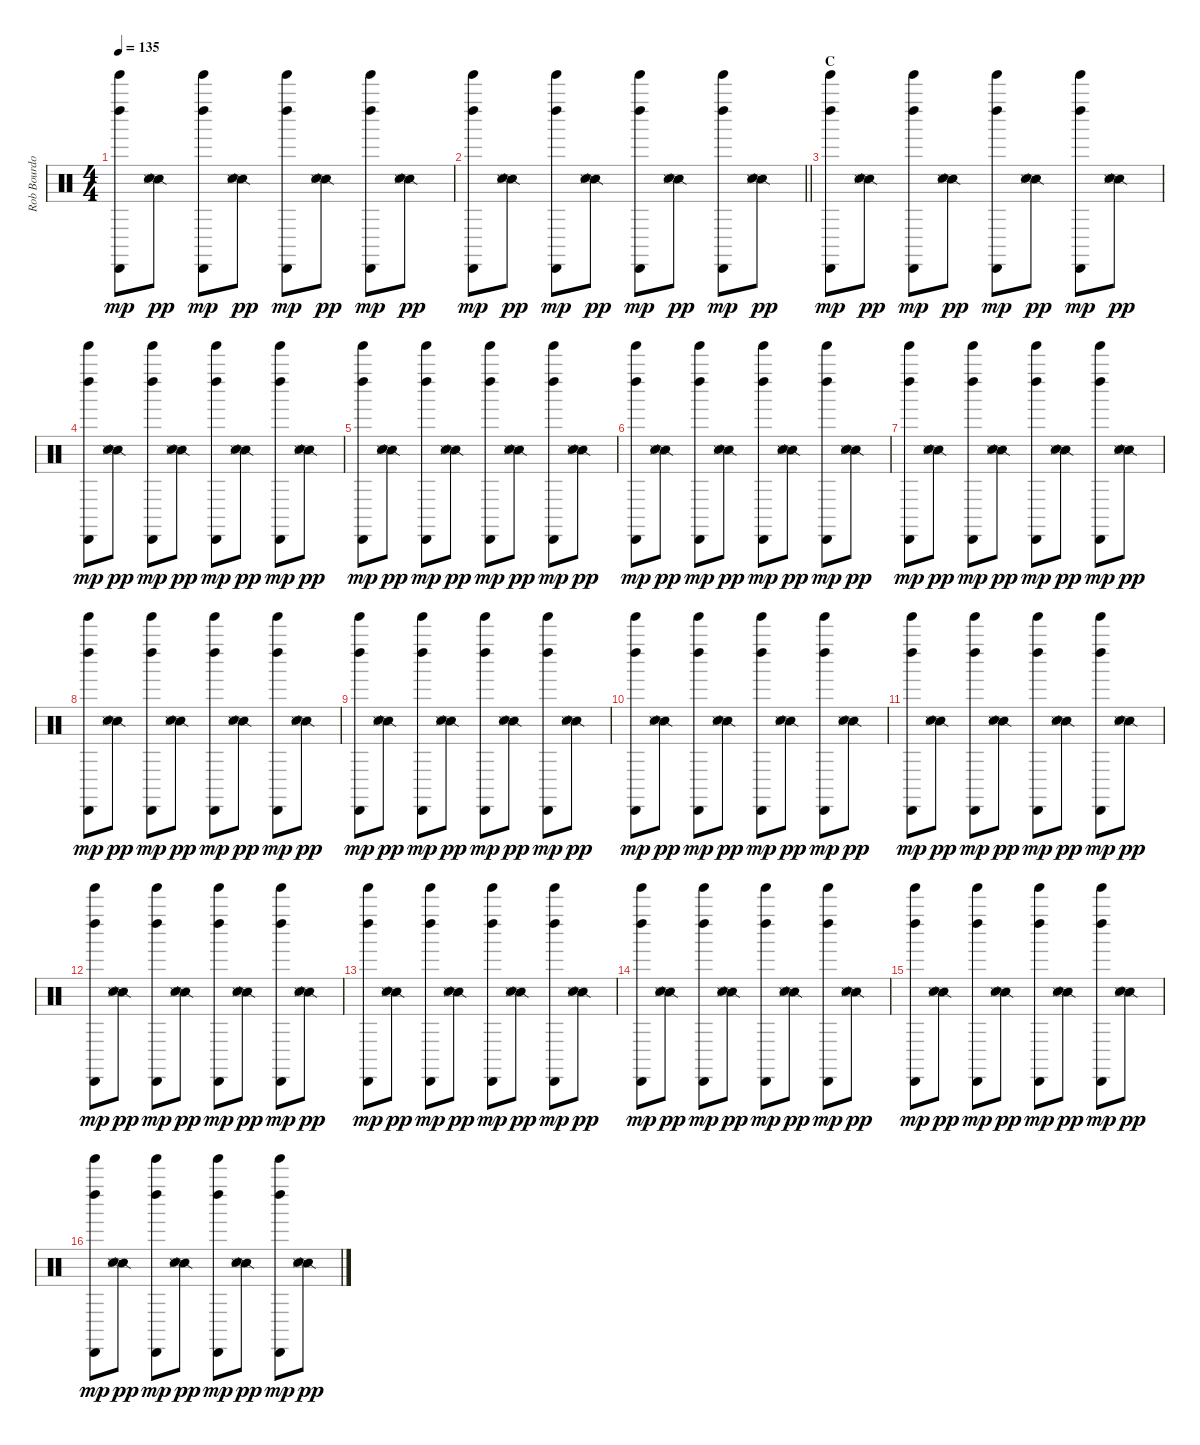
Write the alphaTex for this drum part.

\track ("Rob Bourdon - Beats & Drums" "Rob Bourdo") {instrument percussion}
\staff {score}
\articulation defaults
\ts (4 4)
\tempo 135
\clef neutral
\ks c
("Tinkle Bell (hit)" "Cabasa (hit)" "Left Maraca (hit)").8{dy mp} ("Snare (side stick) 2" "Electric Snare (hit)" "Snare (side stick) 3").8{dy pp} ("Tinkle Bell (hit)" "Cabasa (hit)" "Left Maraca (hit)").8{dy mp} ("Snare (side stick) 2" "Electric Snare (hit)" "Snare (side stick) 3").8{dy pp} ("Tinkle Bell (hit)" "Cabasa (hit)" "Left Maraca (hit)").8{dy mp} ("Snare (side stick) 2" "Electric Snare (hit)" "Snare (side stick) 3").8{dy pp} ("Tinkle Bell (hit)" "Cabasa (hit)" "Left Maraca (hit)").8{dy mp} ("Snare (side stick) 2" "Electric Snare (hit)" "Snare (side stick) 3").8{dy pp} |
\barLineRight lightlight
("Tinkle Bell (hit)" "Cabasa (hit)" "Left Maraca (hit)").8{dy mp} ("Snare (side stick) 2" "Electric Snare (hit)" "Snare (side stick) 3").8{dy pp} ("Tinkle Bell (hit)" "Cabasa (hit)" "Left Maraca (hit)").8{dy mp} ("Snare (side stick) 2" "Electric Snare (hit)" "Snare (side stick) 3").8{dy pp} ("Tinkle Bell (hit)" "Cabasa (hit)" "Left Maraca (hit)").8{dy mp} ("Snare (side stick) 2" "Electric Snare (hit)" "Snare (side stick) 3").8{dy pp} ("Tinkle Bell (hit)" "Cabasa (hit)" "Left Maraca (hit)").8{dy mp} ("Snare (side stick) 2" "Electric Snare (hit)" "Snare (side stick) 3").8{dy pp} |
\section ("" "C")
("Tinkle Bell (hit)" "Cabasa (hit)" "Left Maraca (hit)").8{dy mp} ("Snare (side stick) 2" "Electric Snare (hit)" "Snare (side stick) 3").8{dy pp} ("Tinkle Bell (hit)" "Cabasa (hit)" "Left Maraca (hit)").8{dy mp} ("Snare (side stick) 2" "Electric Snare (hit)" "Snare (side stick) 3").8{dy pp} ("Tinkle Bell (hit)" "Cabasa (hit)" "Left Maraca (hit)").8{dy mp} ("Snare (side stick) 2" "Electric Snare (hit)" "Snare (side stick) 3").8{dy pp} ("Tinkle Bell (hit)" "Cabasa (hit)" "Left Maraca (hit)").8{dy mp} ("Snare (side stick) 2" "Electric Snare (hit)" "Snare (side stick) 3").8{dy pp} |
("Tinkle Bell (hit)" "Cabasa (hit)" "Left Maraca (hit)").8{dy mp} ("Snare (side stick) 2" "Electric Snare (hit)" "Snare (side stick) 3").8{dy pp} ("Tinkle Bell (hit)" "Cabasa (hit)" "Left Maraca (hit)").8{dy mp} ("Snare (side stick) 2" "Electric Snare (hit)" "Snare (side stick) 3").8{dy pp} ("Tinkle Bell (hit)" "Cabasa (hit)" "Left Maraca (hit)").8{dy mp} ("Snare (side stick) 2" "Electric Snare (hit)" "Snare (side stick) 3").8{dy pp} ("Tinkle Bell (hit)" "Cabasa (hit)" "Left Maraca (hit)").8{dy mp} ("Snare (side stick) 2" "Electric Snare (hit)" "Snare (side stick) 3").8{dy pp} |
("Tinkle Bell (hit)" "Cabasa (hit)" "Left Maraca (hit)").8{dy mp} ("Snare (side stick) 2" "Electric Snare (hit)" "Snare (side stick) 3").8{dy pp} ("Tinkle Bell (hit)" "Cabasa (hit)" "Left Maraca (hit)").8{dy mp} ("Snare (side stick) 2" "Electric Snare (hit)" "Snare (side stick) 3").8{dy pp} ("Tinkle Bell (hit)" "Cabasa (hit)" "Left Maraca (hit)").8{dy mp} ("Snare (side stick) 2" "Electric Snare (hit)" "Snare (side stick) 3").8{dy pp} ("Tinkle Bell (hit)" "Cabasa (hit)" "Left Maraca (hit)").8{dy mp} ("Snare (side stick) 2" "Electric Snare (hit)" "Snare (side stick) 3").8{dy pp} |
("Tinkle Bell (hit)" "Cabasa (hit)" "Left Maraca (hit)").8{dy mp} ("Snare (side stick) 2" "Electric Snare (hit)" "Snare (side stick) 3").8{dy pp} ("Tinkle Bell (hit)" "Cabasa (hit)" "Left Maraca (hit)").8{dy mp} ("Snare (side stick) 2" "Electric Snare (hit)" "Snare (side stick) 3").8{dy pp} ("Tinkle Bell (hit)" "Cabasa (hit)" "Left Maraca (hit)").8{dy mp} ("Snare (side stick) 2" "Electric Snare (hit)" "Snare (side stick) 3").8{dy pp} ("Tinkle Bell (hit)" "Cabasa (hit)" "Left Maraca (hit)").8{dy mp} ("Snare (side stick) 2" "Electric Snare (hit)" "Snare (side stick) 3").8{dy pp} |
("Tinkle Bell (hit)" "Cabasa (hit)" "Left Maraca (hit)").8{dy mp} ("Snare (side stick) 2" "Electric Snare (hit)" "Snare (side stick) 3").8{dy pp} ("Tinkle Bell (hit)" "Cabasa (hit)" "Left Maraca (hit)").8{dy mp} ("Snare (side stick) 2" "Electric Snare (hit)" "Snare (side stick) 3").8{dy pp} ("Tinkle Bell (hit)" "Cabasa (hit)" "Left Maraca (hit)").8{dy mp} ("Snare (side stick) 2" "Electric Snare (hit)" "Snare (side stick) 3").8{dy pp} ("Tinkle Bell (hit)" "Cabasa (hit)" "Left Maraca (hit)").8{dy mp} ("Snare (side stick) 2" "Electric Snare (hit)" "Snare (side stick) 3").8{dy pp} |
("Tinkle Bell (hit)" "Cabasa (hit)" "Left Maraca (hit)").8{dy mp} ("Snare (side stick) 2" "Electric Snare (hit)" "Snare (side stick) 3").8{dy pp} ("Tinkle Bell (hit)" "Cabasa (hit)" "Left Maraca (hit)").8{dy mp} ("Snare (side stick) 2" "Electric Snare (hit)" "Snare (side stick) 3").8{dy pp} ("Tinkle Bell (hit)" "Cabasa (hit)" "Left Maraca (hit)").8{dy mp} ("Snare (side stick) 2" "Electric Snare (hit)" "Snare (side stick) 3").8{dy pp} ("Tinkle Bell (hit)" "Cabasa (hit)" "Left Maraca (hit)").8{dy mp} ("Snare (side stick) 2" "Electric Snare (hit)" "Snare (side stick) 3").8{dy pp} |
("Tinkle Bell (hit)" "Cabasa (hit)" "Left Maraca (hit)").8{dy mp} ("Snare (side stick) 2" "Electric Snare (hit)" "Snare (side stick) 3").8{dy pp} ("Tinkle Bell (hit)" "Cabasa (hit)" "Left Maraca (hit)").8{dy mp} ("Snare (side stick) 2" "Electric Snare (hit)" "Snare (side stick) 3").8{dy pp} ("Tinkle Bell (hit)" "Cabasa (hit)" "Left Maraca (hit)").8{dy mp} ("Snare (side stick) 2" "Electric Snare (hit)" "Snare (side stick) 3").8{dy pp} ("Tinkle Bell (hit)" "Cabasa (hit)" "Left Maraca (hit)").8{dy mp} ("Snare (side stick) 2" "Electric Snare (hit)" "Snare (side stick) 3").8{dy pp} |
("Tinkle Bell (hit)" "Cabasa (hit)" "Left Maraca (hit)").8{dy mp} ("Snare (side stick) 2" "Electric Snare (hit)" "Snare (side stick) 3").8{dy pp} ("Tinkle Bell (hit)" "Cabasa (hit)" "Left Maraca (hit)").8{dy mp} ("Snare (side stick) 2" "Electric Snare (hit)" "Snare (side stick) 3").8{dy pp} ("Tinkle Bell (hit)" "Cabasa (hit)" "Left Maraca (hit)").8{dy mp} ("Snare (side stick) 2" "Electric Snare (hit)" "Snare (side stick) 3").8{dy pp} ("Tinkle Bell (hit)" "Cabasa (hit)" "Left Maraca (hit)").8{dy mp} ("Snare (side stick) 2" "Electric Snare (hit)" "Snare (side stick) 3").8{dy pp} |
("Tinkle Bell (hit)" "Cabasa (hit)" "Left Maraca (hit)").8{dy mp} ("Snare (side stick) 2" "Electric Snare (hit)" "Snare (side stick) 3").8{dy pp} ("Tinkle Bell (hit)" "Cabasa (hit)" "Left Maraca (hit)").8{dy mp} ("Snare (side stick) 2" "Electric Snare (hit)" "Snare (side stick) 3").8{dy pp} ("Tinkle Bell (hit)" "Cabasa (hit)" "Left Maraca (hit)").8{dy mp} ("Snare (side stick) 2" "Electric Snare (hit)" "Snare (side stick) 3").8{dy pp} ("Tinkle Bell (hit)" "Cabasa (hit)" "Left Maraca (hit)").8{dy mp} ("Snare (side stick) 2" "Electric Snare (hit)" "Snare (side stick) 3").8{dy pp} |
("Tinkle Bell (hit)" "Cabasa (hit)" "Left Maraca (hit)").8{dy mp} ("Snare (side stick) 2" "Electric Snare (hit)" "Snare (side stick) 3").8{dy pp} ("Tinkle Bell (hit)" "Cabasa (hit)" "Left Maraca (hit)").8{dy mp} ("Snare (side stick) 2" "Electric Snare (hit)" "Snare (side stick) 3").8{dy pp} ("Tinkle Bell (hit)" "Cabasa (hit)" "Left Maraca (hit)").8{dy mp} ("Snare (side stick) 2" "Electric Snare (hit)" "Snare (side stick) 3").8{dy pp} ("Tinkle Bell (hit)" "Cabasa (hit)" "Left Maraca (hit)").8{dy mp} ("Snare (side stick) 2" "Electric Snare (hit)" "Snare (side stick) 3").8{dy pp} |
("Tinkle Bell (hit)" "Cabasa (hit)" "Left Maraca (hit)").8{dy mp} ("Snare (side stick) 2" "Electric Snare (hit)" "Snare (side stick) 3").8{dy pp} ("Tinkle Bell (hit)" "Cabasa (hit)" "Left Maraca (hit)").8{dy mp} ("Snare (side stick) 2" "Electric Snare (hit)" "Snare (side stick) 3").8{dy pp} ("Tinkle Bell (hit)" "Cabasa (hit)" "Left Maraca (hit)").8{dy mp} ("Snare (side stick) 2" "Electric Snare (hit)" "Snare (side stick) 3").8{dy pp} ("Tinkle Bell (hit)" "Cabasa (hit)" "Left Maraca (hit)").8{dy mp} ("Snare (side stick) 2" "Electric Snare (hit)" "Snare (side stick) 3").8{dy pp} |
("Tinkle Bell (hit)" "Cabasa (hit)" "Left Maraca (hit)").8{dy mp} ("Snare (side stick) 2" "Electric Snare (hit)" "Snare (side stick) 3").8{dy pp} ("Tinkle Bell (hit)" "Cabasa (hit)" "Left Maraca (hit)").8{dy mp} ("Snare (side stick) 2" "Electric Snare (hit)" "Snare (side stick) 3").8{dy pp} ("Tinkle Bell (hit)" "Cabasa (hit)" "Left Maraca (hit)").8{dy mp} ("Snare (side stick) 2" "Electric Snare (hit)" "Snare (side stick) 3").8{dy pp} ("Tinkle Bell (hit)" "Cabasa (hit)" "Left Maraca (hit)").8{dy mp} ("Snare (side stick) 2" "Electric Snare (hit)" "Snare (side stick) 3").8{dy pp} |
("Tinkle Bell (hit)" "Cabasa (hit)" "Left Maraca (hit)").8{dy mp} ("Snare (side stick) 2" "Electric Snare (hit)" "Snare (side stick) 3").8{dy pp} ("Tinkle Bell (hit)" "Cabasa (hit)" "Left Maraca (hit)").8{dy mp} ("Snare (side stick) 2" "Electric Snare (hit)" "Snare (side stick) 3").8{dy pp} ("Tinkle Bell (hit)" "Cabasa (hit)" "Left Maraca (hit)").8{dy mp} ("Snare (side stick) 2" "Electric Snare (hit)" "Snare (side stick) 3").8{dy pp} ("Tinkle Bell (hit)" "Cabasa (hit)" "Left Maraca (hit)").8{dy mp} ("Snare (side stick) 2" "Electric Snare (hit)" "Snare (side stick) 3").8{dy pp} |
("Tinkle Bell (hit)" "Cabasa (hit)" "Left Maraca (hit)").8{dy mp} ("Snare (side stick) 2" "Electric Snare (hit)" "Snare (side stick) 3").8{dy pp} ("Tinkle Bell (hit)" "Cabasa (hit)" "Left Maraca (hit)").8{dy mp} ("Snare (side stick) 2" "Electric Snare (hit)" "Snare (side stick) 3").8{dy pp} ("Tinkle Bell (hit)" "Cabasa (hit)" "Left Maraca (hit)").8{dy mp} ("Snare (side stick) 2" "Electric Snare (hit)" "Snare (side stick) 3").8{dy pp} ("Tinkle Bell (hit)" "Cabasa (hit)" "Left Maraca (hit)").8{dy mp} ("Snare (side stick) 2" "Electric Snare (hit)" "Snare (side stick) 3").8{dy pp}
